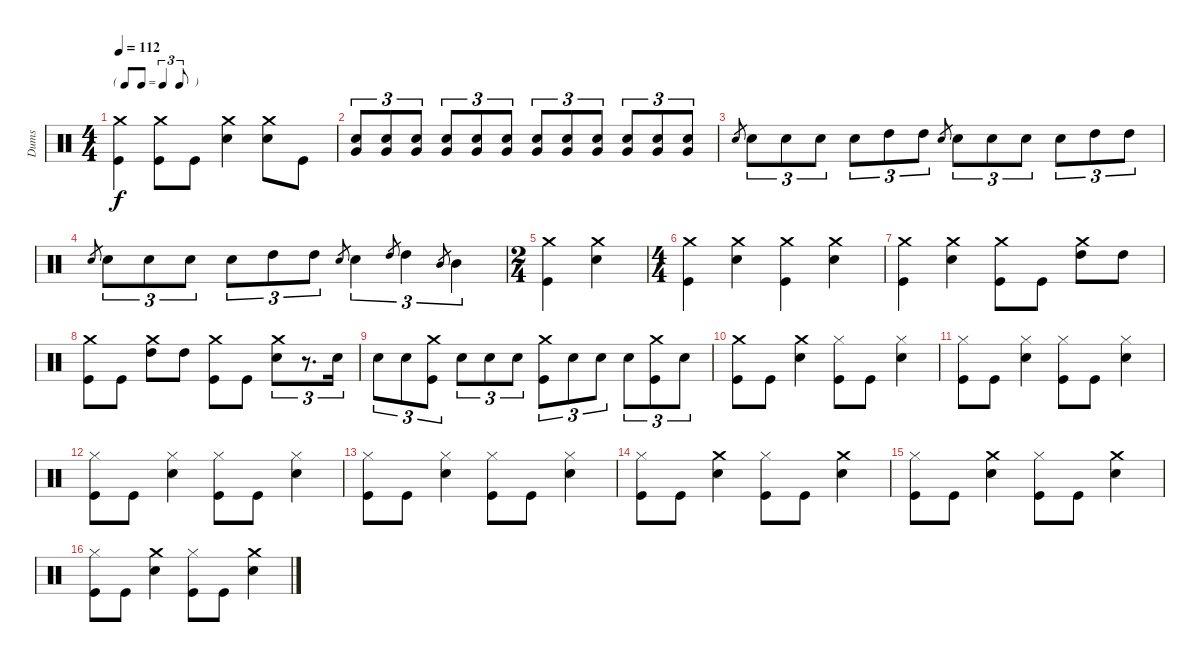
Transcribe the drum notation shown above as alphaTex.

\track ("Dums" "Dums") {instrument percussion}
\staff {score}
\articulation defaults
\ts (4 4)
\tf triplet8th
\tempo 112
\clef neutral
\ks c
("Kick (hit)" "Crash medium (hit)").4{dy f} ("Kick (hit)" "Crash medium (hit)").8 "Kick (hit)".8 ("Electric Snare (hit)" "Crash medium (hit)").4 ("Electric Snare (hit)" "Crash medium (hit)").8 "Kick (hit)".8 |
("Electric Snare (hit)" "Very Low Tom (hit)").8{tu (3 2)} ("Electric Snare (hit)" "Very Low Tom (hit)").8{tu (3 2)} ("Electric Snare (hit)" "Very Low Tom (hit)").8{tu (3 2)} ("Electric Snare (hit)" "Very Low Tom (hit)").8{tu (3 2)} ("Electric Snare (hit)" "Very Low Tom (hit)").8{tu (3 2)} ("Electric Snare (hit)" "Very Low Tom (hit)").8{tu (3 2)} ("Electric Snare (hit)" "Very Low Tom (hit)").8{tu (3 2)} ("Electric Snare (hit)" "Very Low Tom (hit)").8{tu (3 2)} ("Electric Snare (hit)" "Very Low Tom (hit)").8{tu (3 2)} ("Electric Snare (hit)" "Very Low Tom (hit)").8{tu (3 2)} ("Electric Snare (hit)" "Very Low Tom (hit)").8{tu (3 2)} ("Electric Snare (hit)" "Very Low Tom (hit)").8{tu (3 2)} |
"Electric Snare (hit)".8{gr} "Electric Snare (hit)".8{tu (3 2)} "Electric Snare (hit)".8{tu (3 2)} "Electric Snare (hit)".8{tu (3 2)} "Electric Snare (hit)".8{tu (3 2)} "High Tom (hit)".8{tu (3 2)} "High Tom (hit)".8{tu (3 2)} "Electric Snare (hit)".8{gr} "Electric Snare (hit)".8{tu (3 2)} "Electric Snare (hit)".8{tu (3 2)} "Electric Snare (hit)".8{tu (3 2)} "Electric Snare (hit)".8{tu (3 2)} "High Tom (hit)".8{tu (3 2)} "High Tom (hit)".8{tu (3 2)} |
"Electric Snare (hit)".8{gr} "Electric Snare (hit)".8{tu (3 2)} "Electric Snare (hit)".8{tu (3 2)} "Electric Snare (hit)".8{tu (3 2)} "Electric Snare (hit)".8{tu (3 2)} "High Tom (hit)".8{tu (3 2)} "High Tom (hit)".8{tu (3 2)} "Electric Snare (hit)".8{gr} "Electric Snare (hit)".4{tu (3 2)} "High Tom (hit)".8{gr} "High Tom (hit)".4{tu (3 2)} "Mid Tom (hit)".8{gr} "Mid Tom (hit)".4{tu (3 2)} |
\ts (2 4)
("Kick (hit)" "Crash medium (hit)").4 ("Electric Snare (hit)" "Crash medium (hit)").4 |
\ts (4 4)
("Kick (hit)" "Crash medium (hit)").4 ("Electric Snare (hit)" "Crash medium (hit)").4 ("Kick (hit)" "Crash medium (hit)").4 ("Electric Snare (hit)" "Crash medium (hit)").4 |
("Kick (hit)" "Crash medium (hit)").4 ("Electric Snare (hit)" "Crash medium (hit)").4 ("Kick (hit)" "Crash medium (hit)").8 "Kick (hit)".8 ("High Tom (hit)" "Crash medium (hit)").8 "High Tom (hit)".8 |
("Kick (hit)" "Crash medium (hit)").8 "Kick (hit)".8 ("High Tom (hit)" "Crash medium (hit)").8 "High Tom (hit)".8 ("Kick (hit)" "Crash medium (hit)").8 "Kick (hit)".8 ("Electric Snare (hit)" "Crash medium (hit)").8{tu (3 2)} r.8{d tu (3 2)} "Electric Snare (hit)".16{tu (3 2)} |
"Electric Snare (hit)".8{tu (3 2)} "Electric Snare (hit)".8{tu (3 2)} ("Kick (hit)" "Crash medium (hit)").8{tu (3 2)} "Electric Snare (hit)".8{tu (3 2)} "Electric Snare (hit)".8{tu (3 2)} "Electric Snare (hit)".8{tu (3 2)} ("Kick (hit)" "Crash medium (hit)").8{tu (3 2)} "Electric Snare (hit)".8{tu (3 2)} "Electric Snare (hit)".8{tu (3 2)} "Electric Snare (hit)".8{tu (3 2)} ("Kick (hit)" "Crash medium (hit)").8{tu (3 2)} "Electric Snare (hit)".8{tu (3 2)} |
("Kick (hit)" "Crash medium (hit)").8 "Kick (hit)".8 ("Electric Snare (hit)" "Crash medium (hit)").4 ("Kick (hit)" "Hi-Hat (closed)").8 "Kick (hit)".8 ("Electric Snare (hit)" "Hi-Hat (closed)").4 |
("Kick (hit)" "Hi-Hat (closed)").8 "Kick (hit)".8 ("Electric Snare (hit)" "Hi-Hat (closed)").4 ("Kick (hit)" "Hi-Hat (closed)").8 "Kick (hit)".8 ("Electric Snare (hit)" "Hi-Hat (closed)").4 |
("Kick (hit)" "Hi-Hat (closed)").8 "Kick (hit)".8 ("Electric Snare (hit)" "Hi-Hat (closed)").4 ("Kick (hit)" "Hi-Hat (closed)").8 "Kick (hit)".8 ("Electric Snare (hit)" "Hi-Hat (closed)").4 |
("Kick (hit)" "Hi-Hat (closed)").8 "Kick (hit)".8 ("Electric Snare (hit)" "Hi-Hat (closed)").4 ("Kick (hit)" "Hi-Hat (closed)").8 "Kick (hit)".8 ("Electric Snare (hit)" "Hi-Hat (closed)").4 |
("Kick (hit)" "Hi-Hat (closed)").8 "Kick (hit)".8 ("Electric Snare (hit)" "Crash medium (hit)").4 ("Kick (hit)" "Hi-Hat (closed)").8 "Kick (hit)".8 ("Electric Snare (hit)" "Crash medium (hit)").4 |
("Kick (hit)" "Hi-Hat (closed)").8 "Kick (hit)".8 ("Electric Snare (hit)" "Crash medium (hit)").4 ("Kick (hit)" "Hi-Hat (closed)").8 "Kick (hit)".8 ("Electric Snare (hit)" "Crash medium (hit)").4 |
("Kick (hit)" "Hi-Hat (closed)").8 "Kick (hit)".8 ("Electric Snare (hit)" "Crash medium (hit)").4 ("Kick (hit)" "Hi-Hat (closed)").8 "Kick (hit)".8 ("Electric Snare (hit)" "Crash medium (hit)").4
